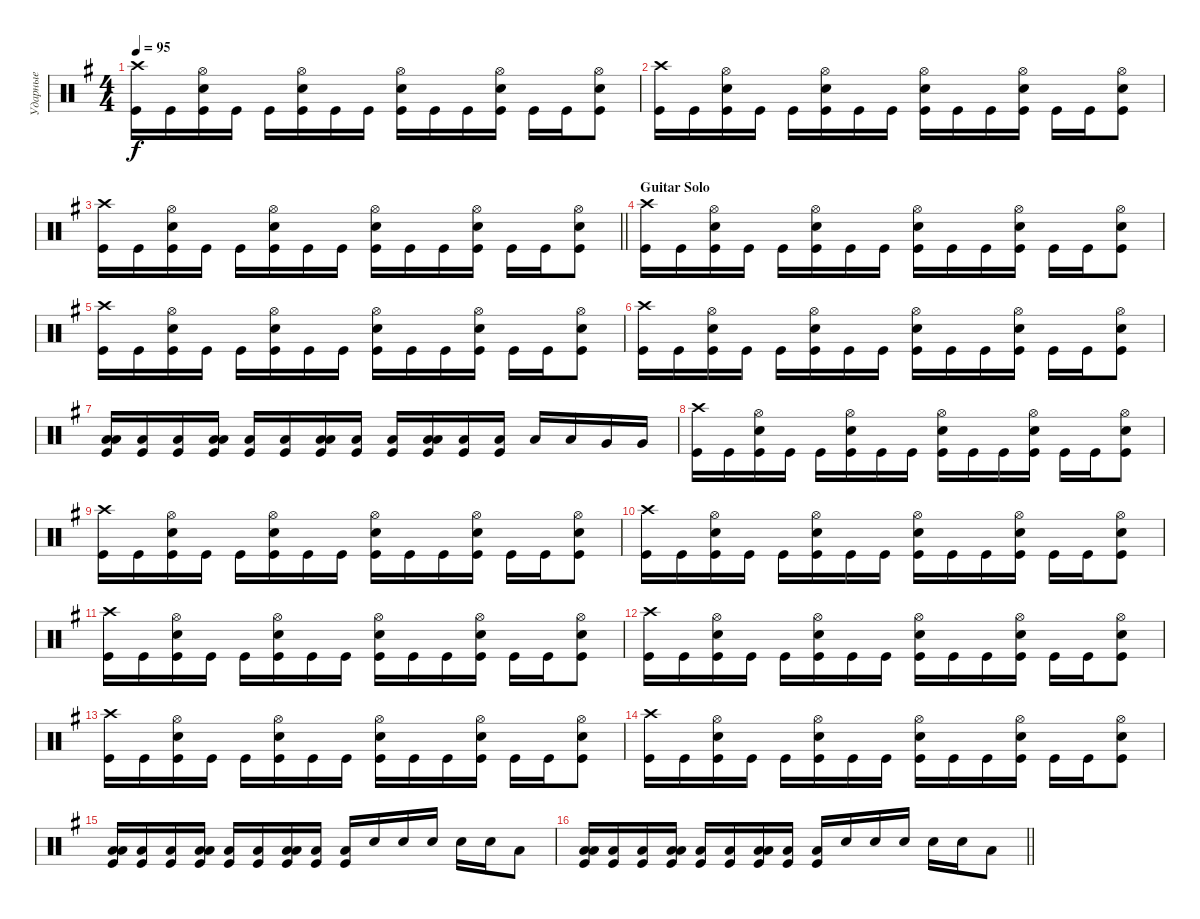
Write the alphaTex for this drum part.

\track ("Ударные" "Ударные") {instrument percussion}
\staff {score}
\articulation defaults
\ts (4 4)
\tempo 95
\clef neutral
\ks eminor
("Kick (hit)" "Crash high (hit)").16{dy f} "Kick (hit)".16 ("Snare (hit) 2" "Kick (hit)" "Hi-Hat (open)").16 "Kick (hit)".16 "Kick (hit)".16 ("Kick (hit)" "Snare (hit) 2" "Hi-Hat (open)").16 "Kick (hit)".16 "Kick (hit)".16 ("Kick (hit)" "Snare (hit) 2" "Hi-Hat (open)").16 "Kick (hit)".16 "Kick (hit)".16 ("Kick (hit)" "Snare (hit) 2" "Hi-Hat (open)").16 "Kick (hit)".16 "Kick (hit)".16 ("Snare (hit) 2" "Kick (hit)" "Hi-Hat (open)").8 |
("Kick (hit)" "Crash high (hit)").16 "Kick (hit)".16 ("Snare (hit) 2" "Kick (hit)" "Hi-Hat (open)").16 "Kick (hit)".16 "Kick (hit)".16 ("Kick (hit)" "Snare (hit) 2" "Hi-Hat (open)").16 "Kick (hit)".16 "Kick (hit)".16 ("Kick (hit)" "Snare (hit) 2" "Hi-Hat (open)").16 "Kick (hit)".16 "Kick (hit)".16 ("Kick (hit)" "Snare (hit) 2" "Hi-Hat (open)").16 "Kick (hit)".16 "Kick (hit)".16 ("Snare (hit) 2" "Kick (hit)" "Hi-Hat (open)").8 |
\barLineRight lightlight
("Kick (hit)" "Crash high (hit)").16 "Kick (hit)".16 ("Snare (hit) 2" "Kick (hit)" "Hi-Hat (open)").16 "Kick (hit)".16 "Kick (hit)".16 ("Kick (hit)" "Snare (hit) 2" "Hi-Hat (open)").16 "Kick (hit)".16 "Kick (hit)".16 ("Kick (hit)" "Snare (hit) 2" "Hi-Hat (open)").16 "Kick (hit)".16 "Kick (hit)".16 ("Kick (hit)" "Snare (hit) 2" "Hi-Hat (open)").16 "Kick (hit)".16 "Kick (hit)".16 ("Snare (hit) 2" "Kick (hit)" "Hi-Hat (open)").8 |
\section ("" "Guitar Solo")
("Kick (hit)" "Crash high (hit)").16 "Kick (hit)".16 ("Snare (hit) 2" "Kick (hit)" "Hi-Hat (open)").16 "Kick (hit)".16 "Kick (hit)".16 ("Kick (hit)" "Snare (hit) 2" "Hi-Hat (open)").16 "Kick (hit)".16 "Kick (hit)".16 ("Kick (hit)" "Snare (hit) 2" "Hi-Hat (open)").16 "Kick (hit)".16 "Kick (hit)".16 ("Kick (hit)" "Snare (hit) 2" "Hi-Hat (open)").16 "Kick (hit)".16 "Kick (hit)".16 ("Snare (hit) 2" "Kick (hit)" "Hi-Hat (open)").8 |
("Kick (hit)" "Crash high (hit)").16 "Kick (hit)".16 ("Snare (hit) 2" "Kick (hit)" "Hi-Hat (open)").16 "Kick (hit)".16 "Kick (hit)".16 ("Kick (hit)" "Snare (hit) 2" "Hi-Hat (open)").16 "Kick (hit)".16 "Kick (hit)".16 ("Kick (hit)" "Snare (hit) 2" "Hi-Hat (open)").16 "Kick (hit)".16 "Kick (hit)".16 ("Kick (hit)" "Snare (hit) 2" "Hi-Hat (open)").16 "Kick (hit)".16 "Kick (hit)".16 ("Snare (hit) 2" "Kick (hit)" "Hi-Hat (open)").8 |
("Kick (hit)" "Crash high (hit)").16 "Kick (hit)".16 ("Snare (hit) 2" "Kick (hit)" "Hi-Hat (open)").16 "Kick (hit)".16 "Kick (hit)".16 ("Kick (hit)" "Snare (hit) 2" "Hi-Hat (open)").16 "Kick (hit)".16 "Kick (hit)".16 ("Kick (hit)" "Snare (hit) 2" "Hi-Hat (open)").16 "Kick (hit)".16 "Kick (hit)".16 ("Kick (hit)" "Snare (hit) 2" "Hi-Hat (open)").16 "Kick (hit)".16 "Kick (hit)".16 ("Snare (hit) 2" "Kick (hit)" "Hi-Hat (open)").8 |
("Kick (hit)" "Low Tom (hit)" "Low Tom (hit)").16{bd 240} ("Kick (hit)" "Low Tom (hit)").16 ("Kick (hit)" "Low Tom (hit)").16 ("Kick (hit)" "Low Tom (hit)" "Low Tom (hit)").16{bd 240} ("Kick (hit)" "Low Tom (hit)").16 ("Kick (hit)" "Low Tom (hit)").16 ("Kick (hit)" "Low Tom (hit)" "Low Tom (hit)").16{bd 240} ("Kick (hit)" "Low Tom (hit)").16 ("Kick (hit)" "Low Tom (hit)").16 ("Kick (hit)" "Low Tom (hit)" "Low Tom (hit)").16{bd 240} ("Kick (hit)" "Low Tom (hit)").16 ("Kick (hit)" "Low Tom (hit)").16 "Low Tom (hit)".16 "Low Tom (hit)".16 "Very Low Tom (hit)".16 "Very Low Tom (hit)".16 |
("Kick (hit)" "Crash high (hit)").16 "Kick (hit)".16 ("Snare (hit) 2" "Kick (hit)" "Hi-Hat (open)").16 "Kick (hit)".16 "Kick (hit)".16 ("Kick (hit)" "Snare (hit) 2" "Hi-Hat (open)").16 "Kick (hit)".16 "Kick (hit)".16 ("Kick (hit)" "Snare (hit) 2" "Hi-Hat (open)").16 "Kick (hit)".16 "Kick (hit)".16 ("Kick (hit)" "Snare (hit) 2" "Hi-Hat (open)").16 "Kick (hit)".16 "Kick (hit)".16 ("Snare (hit) 2" "Kick (hit)" "Hi-Hat (open)").8 |
("Kick (hit)" "Crash high (hit)").16 "Kick (hit)".16 ("Snare (hit) 2" "Kick (hit)" "Hi-Hat (open)").16 "Kick (hit)".16 "Kick (hit)".16 ("Kick (hit)" "Snare (hit) 2" "Hi-Hat (open)").16 "Kick (hit)".16 "Kick (hit)".16 ("Kick (hit)" "Snare (hit) 2" "Hi-Hat (open)").16 "Kick (hit)".16 "Kick (hit)".16 ("Kick (hit)" "Snare (hit) 2" "Hi-Hat (open)").16 "Kick (hit)".16 "Kick (hit)".16 ("Snare (hit) 2" "Kick (hit)" "Hi-Hat (open)").8 |
("Kick (hit)" "Crash high (hit)").16 "Kick (hit)".16 ("Snare (hit) 2" "Kick (hit)" "Hi-Hat (open)").16 "Kick (hit)".16 "Kick (hit)".16 ("Kick (hit)" "Snare (hit) 2" "Hi-Hat (open)").16 "Kick (hit)".16 "Kick (hit)".16 ("Kick (hit)" "Snare (hit) 2" "Hi-Hat (open)").16 "Kick (hit)".16 "Kick (hit)".16 ("Kick (hit)" "Snare (hit) 2" "Hi-Hat (open)").16 "Kick (hit)".16 "Kick (hit)".16 ("Snare (hit) 2" "Kick (hit)" "Hi-Hat (open)").8 |
("Kick (hit)" "Crash high (hit)").16 "Kick (hit)".16 ("Snare (hit) 2" "Kick (hit)" "Hi-Hat (open)").16 "Kick (hit)".16 "Kick (hit)".16 ("Kick (hit)" "Snare (hit) 2" "Hi-Hat (open)").16 "Kick (hit)".16 "Kick (hit)".16 ("Kick (hit)" "Snare (hit) 2" "Hi-Hat (open)").16 "Kick (hit)".16 "Kick (hit)".16 ("Kick (hit)" "Snare (hit) 2" "Hi-Hat (open)").16 "Kick (hit)".16 "Kick (hit)".16 ("Snare (hit) 2" "Kick (hit)" "Hi-Hat (open)").8 |
("Kick (hit)" "Crash high (hit)").16 "Kick (hit)".16 ("Snare (hit) 2" "Kick (hit)" "Hi-Hat (open)").16 "Kick (hit)".16 "Kick (hit)".16 ("Kick (hit)" "Snare (hit) 2" "Hi-Hat (open)").16 "Kick (hit)".16 "Kick (hit)".16 ("Kick (hit)" "Snare (hit) 2" "Hi-Hat (open)").16 "Kick (hit)".16 "Kick (hit)".16 ("Kick (hit)" "Snare (hit) 2" "Hi-Hat (open)").16 "Kick (hit)".16 "Kick (hit)".16 ("Snare (hit) 2" "Kick (hit)" "Hi-Hat (open)").8 |
("Kick (hit)" "Crash high (hit)").16 "Kick (hit)".16 ("Snare (hit) 2" "Kick (hit)" "Hi-Hat (open)").16 "Kick (hit)".16 "Kick (hit)".16 ("Kick (hit)" "Snare (hit) 2" "Hi-Hat (open)").16 "Kick (hit)".16 "Kick (hit)".16 ("Kick (hit)" "Snare (hit) 2" "Hi-Hat (open)").16 "Kick (hit)".16 "Kick (hit)".16 ("Kick (hit)" "Snare (hit) 2" "Hi-Hat (open)").16 "Kick (hit)".16 "Kick (hit)".16 ("Snare (hit) 2" "Kick (hit)" "Hi-Hat (open)").8 |
("Kick (hit)" "Crash high (hit)").16 "Kick (hit)".16 ("Snare (hit) 2" "Kick (hit)" "Hi-Hat (open)").16 "Kick (hit)".16 "Kick (hit)".16 ("Kick (hit)" "Snare (hit) 2" "Hi-Hat (open)").16 "Kick (hit)".16 "Kick (hit)".16 ("Kick (hit)" "Snare (hit) 2" "Hi-Hat (open)").16 "Kick (hit)".16 "Kick (hit)".16 ("Kick (hit)" "Snare (hit) 2" "Hi-Hat (open)").16 "Kick (hit)".16 "Kick (hit)".16 ("Snare (hit) 2" "Kick (hit)" "Hi-Hat (open)").8 |
("Kick (hit)" "Low Tom (hit)" "Low Tom (hit)").16{bd 240} ("Kick (hit)" "Low Tom (hit)").16 ("Kick (hit)" "Low Tom (hit)").16 ("Kick (hit)" "Low Tom (hit)" "Low Tom (hit)").16{bd 240} ("Kick (hit)" "Low Tom (hit)").16 ("Kick (hit)" "Low Tom (hit)").16 ("Kick (hit)" "Low Tom (hit)" "Low Tom (hit)").16{bd 240} ("Kick (hit)" "Low Tom (hit)").16 ("Kick (hit)" "Low Tom (hit)").16 "Snare (hit) 2".16{bd 240} "Snare (hit) 2".16 "Snare (hit) 2".16 "Snare (hit) 2".16 "Snare (hit) 2".16 "Low Tom (hit)".8 |
\barLineRight lightlight
("Kick (hit)" "Low Tom (hit)" "Low Tom (hit)").16{bd 240} ("Kick (hit)" "Low Tom (hit)").16 ("Kick (hit)" "Low Tom (hit)").16 ("Kick (hit)" "Low Tom (hit)" "Low Tom (hit)").16{bd 240} ("Kick (hit)" "Low Tom (hit)").16 ("Kick (hit)" "Low Tom (hit)").16 ("Kick (hit)" "Low Tom (hit)" "Low Tom (hit)").16{bd 240} ("Kick (hit)" "Low Tom (hit)").16 ("Kick (hit)" "Low Tom (hit)").16 "Snare (hit) 2".16{bd 240} "Snare (hit) 2".16 "Snare (hit) 2".16 "Snare (hit) 2".16 "Snare (hit) 2".16 "Low Tom (hit)".8
